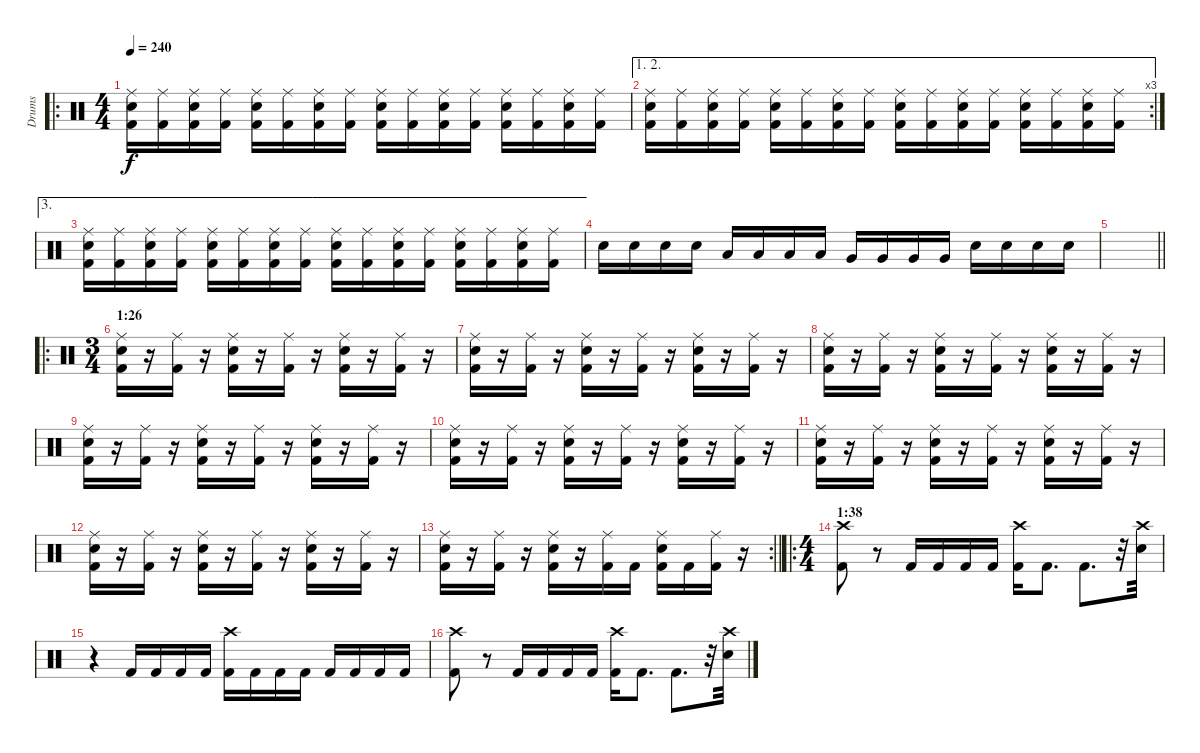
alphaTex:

\track ("Drums" "Drums") {instrument percussion}
\staff {score}
\articulation defaults
\ro
\ts (4 4)
\tempo 240
\clef neutral
\ks c
("Ride (middle)" "Electric Snare (hit)" "Kick (hit) 2").16{dy f} ("Ride (middle)" "Kick (hit) 2").16 ("Ride (middle)" "Electric Snare (hit)" "Kick (hit) 2").16 ("Ride (middle)" "Kick (hit) 2").16 ("Ride (middle)" "Electric Snare (hit)" "Kick (hit) 2").16 ("Ride (middle)" "Kick (hit) 2").16 ("Ride (middle)" "Electric Snare (hit)" "Kick (hit) 2").16 ("Ride (middle)" "Kick (hit) 2").16 ("Ride (middle)" "Electric Snare (hit)" "Kick (hit) 2").16 ("Ride (middle)" "Kick (hit) 2").16 ("Ride (middle)" "Electric Snare (hit)" "Kick (hit) 2").16 ("Ride (middle)" "Kick (hit) 2").16 ("Ride (middle)" "Electric Snare (hit)" "Kick (hit) 2").16 ("Ride (middle)" "Kick (hit) 2").16 ("Ride (middle)" "Electric Snare (hit)" "Kick (hit) 2").16 ("Ride (middle)" "Kick (hit) 2").16 |
\ae (1 2)
\rc 3
("Ride (middle)" "Electric Snare (hit)" "Kick (hit) 2").16 ("Ride (middle)" "Kick (hit) 2").16 ("Ride (middle)" "Electric Snare (hit)" "Kick (hit) 2").16 ("Ride (middle)" "Kick (hit) 2").16 ("Ride (middle)" "Electric Snare (hit)" "Kick (hit) 2").16 ("Ride (middle)" "Kick (hit) 2").16 ("Ride (middle)" "Electric Snare (hit)" "Kick (hit) 2").16 ("Ride (middle)" "Kick (hit) 2").16 ("Ride (middle)" "Electric Snare (hit)" "Kick (hit) 2").16 ("Ride (middle)" "Kick (hit) 2").16 ("Ride (middle)" "Electric Snare (hit)" "Kick (hit) 2").16 ("Ride (middle)" "Kick (hit) 2").16 ("Ride (middle)" "Electric Snare (hit)" "Kick (hit) 2").16 ("Ride (middle)" "Kick (hit) 2").16 ("Ride (middle)" "Electric Snare (hit)" "Kick (hit) 2").16 ("Ride (middle)" "Kick (hit) 2").16 |
\ae 3
("Ride (middle)" "Electric Snare (hit)" "Kick (hit) 2").16 ("Ride (middle)" "Kick (hit) 2").16 ("Ride (middle)" "Electric Snare (hit)" "Kick (hit) 2").16 ("Ride (middle)" "Kick (hit) 2").16 ("Ride (middle)" "Electric Snare (hit)" "Kick (hit) 2").16 ("Ride (middle)" "Kick (hit) 2").16 ("Ride (middle)" "Electric Snare (hit)" "Kick (hit) 2").16 ("Ride (middle)" "Kick (hit) 2").16 ("Ride (middle)" "Electric Snare (hit)" "Kick (hit) 2").16 ("Ride (middle)" "Kick (hit) 2").16 ("Ride (middle)" "Electric Snare (hit)" "Kick (hit) 2").16 ("Ride (middle)" "Kick (hit) 2").16 ("Ride (middle)" "Electric Snare (hit)" "Kick (hit) 2").16 ("Ride (middle)" "Kick (hit) 2").16 ("Ride (middle)" "Electric Snare (hit)" "Kick (hit) 2").16 ("Ride (middle)" "Kick (hit) 2").16 |
"Electric Snare (hit)".16 "Electric Snare (hit)".16 "Electric Snare (hit)".16 "Electric Snare (hit)".16 "Low Tom (hit)".16 "Low Tom (hit)".16 "Low Tom (hit)".16 "Low Tom (hit)".16 "Very Low Tom (hit)".16 "Very Low Tom (hit)".16 "Very Low Tom (hit)".16 "Very Low Tom (hit)".16 "Electric Snare (hit)".16 "Electric Snare (hit)".16 "Electric Snare (hit)".16 "Electric Snare (hit)".16 |
\barLineRight lightlight
|
\ro
\ts (3 4)
\section ("" "1:26")
("Ride (middle)" "Electric Snare (hit)" "Kick (hit) 2").16 r.16 ("Ride (middle)" "Kick (hit) 2").16 r.16 ("Ride (middle)" "Electric Snare (hit)" "Kick (hit) 2").16 r.16 ("Ride (middle)" "Kick (hit) 2").16 r.16 ("Ride (middle)" "Electric Snare (hit)" "Kick (hit) 2").16 r.16 ("Ride (middle)" "Kick (hit) 2").16 r.16 |
("Ride (middle)" "Electric Snare (hit)" "Kick (hit) 2").16 r.16 ("Ride (middle)" "Kick (hit) 2").16 r.16 ("Ride (middle)" "Electric Snare (hit)" "Kick (hit) 2").16 r.16 ("Ride (middle)" "Kick (hit) 2").16 r.16 ("Ride (middle)" "Electric Snare (hit)" "Kick (hit) 2").16 r.16 ("Ride (middle)" "Kick (hit) 2").16 r.16 |
("Ride (middle)" "Electric Snare (hit)" "Kick (hit) 2").16 r.16 ("Ride (middle)" "Kick (hit) 2").16 r.16 ("Ride (middle)" "Electric Snare (hit)" "Kick (hit) 2").16 r.16 ("Ride (middle)" "Kick (hit) 2").16 r.16 ("Ride (middle)" "Electric Snare (hit)" "Kick (hit) 2").16 r.16 ("Ride (middle)" "Kick (hit) 2").16 r.16 |
("Ride (middle)" "Electric Snare (hit)" "Kick (hit) 2").16 r.16 ("Ride (middle)" "Kick (hit) 2").16 r.16 ("Ride (middle)" "Electric Snare (hit)" "Kick (hit) 2").16 r.16 ("Ride (middle)" "Kick (hit) 2").16 r.16 ("Ride (middle)" "Electric Snare (hit)" "Kick (hit) 2").16 r.16 ("Ride (middle)" "Kick (hit) 2").16 r.16 |
("Ride (middle)" "Electric Snare (hit)" "Kick (hit) 2").16 r.16 ("Ride (middle)" "Kick (hit) 2").16 r.16 ("Ride (middle)" "Electric Snare (hit)" "Kick (hit) 2").16 r.16 ("Ride (middle)" "Kick (hit) 2").16 r.16 ("Ride (middle)" "Electric Snare (hit)" "Kick (hit) 2").16 r.16 ("Ride (middle)" "Kick (hit) 2").16 r.16 |
("Ride (middle)" "Electric Snare (hit)" "Kick (hit) 2").16 r.16 ("Ride (middle)" "Kick (hit) 2").16 r.16 ("Ride (middle)" "Electric Snare (hit)" "Kick (hit) 2").16 r.16 ("Ride (middle)" "Kick (hit) 2").16 r.16 ("Ride (middle)" "Electric Snare (hit)" "Kick (hit) 2").16 r.16 ("Ride (middle)" "Kick (hit) 2").16 r.16 |
("Ride (middle)" "Electric Snare (hit)" "Kick (hit) 2").16 r.16 ("Ride (middle)" "Kick (hit) 2").16 r.16 ("Ride (middle)" "Electric Snare (hit)" "Kick (hit) 2").16 r.16 ("Ride (middle)" "Kick (hit) 2").16 r.16 ("Ride (middle)" "Electric Snare (hit)" "Kick (hit) 2").16 r.16 ("Ride (middle)" "Kick (hit) 2").16 r.16 |
\rc 2
\barLineRight lightlight
("Ride (middle)" "Electric Snare (hit)" "Kick (hit) 2").16 r.16 ("Ride (middle)" "Kick (hit) 2").16 r.16 ("Ride (middle)" "Electric Snare (hit)" "Kick (hit) 2").16 r.16 ("Ride (middle)" "Kick (hit) 2").16 "Kick (hit) 2".16 ("Ride (middle)" "Electric Snare (hit)" "Kick (hit) 2").16 "Kick (hit) 2".16 ("Ride (middle)" "Kick (hit) 2").16 r.16 |
\ro
\ts (4 4)
\section ("" "1:38")
("Crash high (hit)" "Kick (hit) 2").8 r.8 "Kick (hit) 2".16 "Kick (hit) 2".16 "Kick (hit) 2".16 "Kick (hit) 2".16 ("Crash high (hit)" "Kick (hit) 2").16 "Kick (hit) 2".8{d} "Kick (hit) 2".8{d} r.32 ("Crash high (hit)" "Electric Snare (hit)").32 |
r.4 "Kick (hit) 2".16 "Kick (hit) 2".16 "Kick (hit) 2".16 "Kick (hit) 2".16 ("Crash high (hit)" "Kick (hit) 2").16 "Kick (hit) 2".16 "Kick (hit) 2".16 "Kick (hit) 2".16 "Kick (hit) 2".16 "Kick (hit) 2".16 "Kick (hit) 2".16 "Kick (hit) 2".16 |
("Crash high (hit)" "Kick (hit) 2").8 r.8 "Kick (hit) 2".16 "Kick (hit) 2".16 "Kick (hit) 2".16 "Kick (hit) 2".16 ("Crash high (hit)" "Kick (hit) 2").16 "Kick (hit) 2".8{d} "Kick (hit) 2".8{d} r.32 ("Crash high (hit)" "Electric Snare (hit)").32
